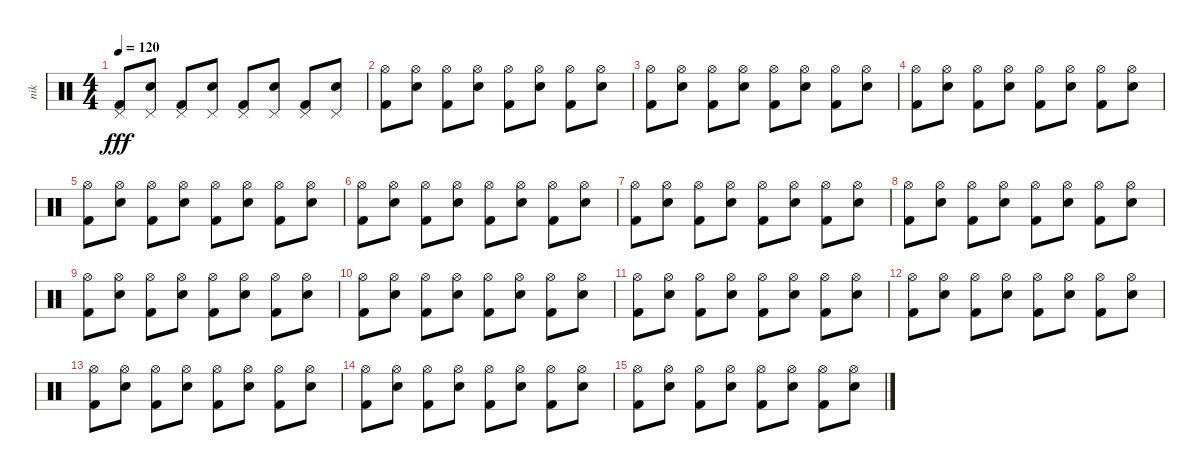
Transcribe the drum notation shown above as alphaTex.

\track ("nik" "nik") {instrument percussion}
\staff {score}
\articulation defaults
\ts (4 4)
\tempo 120
\clef neutral
\ks c
("Pedal Hi-Hat (hit)" "Kick (hit) 2").8{dy fff} ("Pedal Hi-Hat (hit)" "Electric Snare (hit)").8 ("Pedal Hi-Hat (hit)" "Kick (hit) 2").8 ("Pedal Hi-Hat (hit)" "Electric Snare (hit)").8 ("Pedal Hi-Hat (hit)" "Kick (hit) 2").8 ("Pedal Hi-Hat (hit)" "Electric Snare (hit)").8 ("Pedal Hi-Hat (hit)" "Kick (hit) 2").8 ("Pedal Hi-Hat (hit)" "Electric Snare (hit)").8 |
("Kick (hit) 2" "Hi-Hat (open)").8 ("Electric Snare (hit)" "Hi-Hat (open)").8 ("Kick (hit) 2" "Hi-Hat (open)").8 ("Electric Snare (hit)" "Hi-Hat (open)").8 ("Kick (hit) 2" "Hi-Hat (open)").8 ("Electric Snare (hit)" "Hi-Hat (open)").8 ("Kick (hit) 2" "Hi-Hat (open)").8 ("Electric Snare (hit)" "Hi-Hat (open)").8 |
("Kick (hit) 2" "Hi-Hat (open)").8 ("Electric Snare (hit)" "Hi-Hat (open)").8 ("Kick (hit) 2" "Hi-Hat (open)").8 ("Electric Snare (hit)" "Hi-Hat (open)").8 ("Kick (hit) 2" "Hi-Hat (open)").8 ("Electric Snare (hit)" "Hi-Hat (open)").8 ("Kick (hit) 2" "Hi-Hat (open)").8 ("Electric Snare (hit)" "Hi-Hat (open)").8 |
("Kick (hit) 2" "Hi-Hat (open)").8 ("Electric Snare (hit)" "Hi-Hat (open)").8 ("Kick (hit) 2" "Hi-Hat (open)").8 ("Electric Snare (hit)" "Hi-Hat (open)").8 ("Kick (hit) 2" "Hi-Hat (open)").8 ("Electric Snare (hit)" "Hi-Hat (open)").8 ("Kick (hit) 2" "Hi-Hat (open)").8 ("Electric Snare (hit)" "Hi-Hat (open)").8 |
("Kick (hit) 2" "Hi-Hat (open)").8 ("Electric Snare (hit)" "Hi-Hat (open)").8 ("Kick (hit) 2" "Hi-Hat (open)").8 ("Electric Snare (hit)" "Hi-Hat (open)").8 ("Kick (hit) 2" "Hi-Hat (open)").8 ("Electric Snare (hit)" "Hi-Hat (open)").8 ("Kick (hit) 2" "Hi-Hat (open)").8 ("Electric Snare (hit)" "Hi-Hat (open)").8 |
("Kick (hit) 2" "Hi-Hat (open)").8 ("Electric Snare (hit)" "Hi-Hat (open)").8 ("Kick (hit) 2" "Hi-Hat (open)").8 ("Electric Snare (hit)" "Hi-Hat (open)").8 ("Kick (hit) 2" "Hi-Hat (open)").8 ("Electric Snare (hit)" "Hi-Hat (open)").8 ("Kick (hit) 2" "Hi-Hat (open)").8 ("Electric Snare (hit)" "Hi-Hat (open)").8 |
("Kick (hit) 2" "Hi-Hat (open)").8 ("Electric Snare (hit)" "Hi-Hat (open)").8 ("Kick (hit) 2" "Hi-Hat (open)").8 ("Electric Snare (hit)" "Hi-Hat (open)").8 ("Kick (hit) 2" "Hi-Hat (open)").8 ("Electric Snare (hit)" "Hi-Hat (open)").8 ("Kick (hit) 2" "Hi-Hat (open)").8 ("Electric Snare (hit)" "Hi-Hat (open)").8 |
("Kick (hit) 2" "Hi-Hat (open)").8 ("Electric Snare (hit)" "Hi-Hat (open)").8 ("Kick (hit) 2" "Hi-Hat (open)").8 ("Electric Snare (hit)" "Hi-Hat (open)").8 ("Kick (hit) 2" "Hi-Hat (open)").8 ("Electric Snare (hit)" "Hi-Hat (open)").8 ("Kick (hit) 2" "Hi-Hat (open)").8 ("Electric Snare (hit)" "Hi-Hat (open)").8 |
("Kick (hit) 2" "Hi-Hat (open)").8 ("Electric Snare (hit)" "Hi-Hat (open)").8 ("Kick (hit) 2" "Hi-Hat (open)").8 ("Electric Snare (hit)" "Hi-Hat (open)").8 ("Kick (hit) 2" "Hi-Hat (open)").8 ("Electric Snare (hit)" "Hi-Hat (open)").8 ("Kick (hit) 2" "Hi-Hat (open)").8 ("Electric Snare (hit)" "Hi-Hat (open)").8 |
("Kick (hit) 2" "Hi-Hat (open)").8 ("Electric Snare (hit)" "Hi-Hat (open)").8 ("Kick (hit) 2" "Hi-Hat (open)").8 ("Electric Snare (hit)" "Hi-Hat (open)").8 ("Kick (hit) 2" "Hi-Hat (open)").8 ("Electric Snare (hit)" "Hi-Hat (open)").8 ("Kick (hit) 2" "Hi-Hat (open)").8 ("Electric Snare (hit)" "Hi-Hat (open)").8 |
("Kick (hit) 2" "Hi-Hat (open)").8 ("Electric Snare (hit)" "Hi-Hat (open)").8 ("Kick (hit) 2" "Hi-Hat (open)").8 ("Electric Snare (hit)" "Hi-Hat (open)").8 ("Kick (hit) 2" "Hi-Hat (open)").8 ("Electric Snare (hit)" "Hi-Hat (open)").8 ("Kick (hit) 2" "Hi-Hat (open)").8 ("Electric Snare (hit)" "Hi-Hat (open)").8 |
("Kick (hit) 2" "Hi-Hat (open)").8{volume 0} ("Electric Snare (hit)" "Hi-Hat (open)").8 ("Kick (hit) 2" "Hi-Hat (open)").8 ("Electric Snare (hit)" "Hi-Hat (open)").8 ("Kick (hit) 2" "Hi-Hat (open)").8 ("Electric Snare (hit)" "Hi-Hat (open)").8 ("Kick (hit) 2" "Hi-Hat (open)").8 ("Electric Snare (hit)" "Hi-Hat (open)").8 |
("Kick (hit) 2" "Hi-Hat (open)").8 ("Electric Snare (hit)" "Hi-Hat (open)").8 ("Kick (hit) 2" "Hi-Hat (open)").8 ("Electric Snare (hit)" "Hi-Hat (open)").8 ("Kick (hit) 2" "Hi-Hat (open)").8 ("Electric Snare (hit)" "Hi-Hat (open)").8 ("Kick (hit) 2" "Hi-Hat (open)").8 ("Electric Snare (hit)" "Hi-Hat (open)").8 |
("Kick (hit) 2" "Hi-Hat (open)").8 ("Electric Snare (hit)" "Hi-Hat (open)").8 ("Kick (hit) 2" "Hi-Hat (open)").8 ("Electric Snare (hit)" "Hi-Hat (open)").8 ("Kick (hit) 2" "Hi-Hat (open)").8 ("Electric Snare (hit)" "Hi-Hat (open)").8 ("Kick (hit) 2" "Hi-Hat (open)").8 ("Electric Snare (hit)" "Hi-Hat (open)").8 |
("Kick (hit) 2" "Hi-Hat (open)").8 ("Electric Snare (hit)" "Hi-Hat (open)").8 ("Kick (hit) 2" "Hi-Hat (open)").8 ("Electric Snare (hit)" "Hi-Hat (open)").8 ("Kick (hit) 2" "Hi-Hat (open)").8 ("Electric Snare (hit)" "Hi-Hat (open)").8 ("Kick (hit) 2" "Hi-Hat (open)").8 ("Electric Snare (hit)" "Hi-Hat (open)").8
